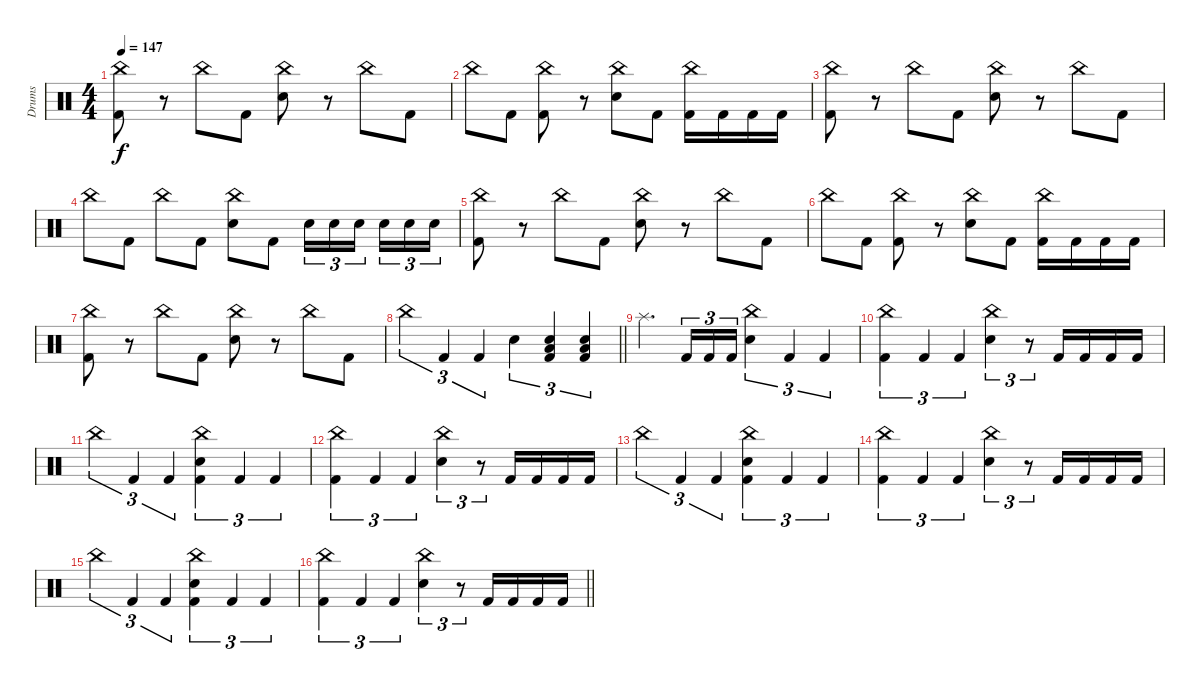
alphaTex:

\track ("Drums" "Drums") {instrument percussion}
\staff {score}
\articulation defaults
\ts (4 4)
\section ("" "")
\tempo 147
\clef neutral
\ks c
("China (hit)" "Kick (hit) 2").8{dy f} r.8 "China (hit)".8 "Kick (hit) 2".8 ("China (hit)" "Electric Snare (hit)").8 r.8 "China (hit)".8 "Kick (hit) 2".8 |
"China (hit)".8 "Kick (hit) 2".8 ("China (hit)" "Kick (hit) 2").8 r.8 ("China (hit)" "Electric Snare (hit)").8 "Kick (hit) 2".8 ("China (hit)" "Kick (hit) 2").16 "Kick (hit) 2".16 "Kick (hit) 2".16 "Kick (hit) 2".16 |
("China (hit)" "Kick (hit) 2").8 r.8 "China (hit)".8 "Kick (hit) 2".8 ("China (hit)" "Electric Snare (hit)").8 r.8 "China (hit)".8 "Kick (hit) 2".8 |
"China (hit)".8 "Kick (hit) 2".8 "China (hit)".8 "Kick (hit) 2".8 ("China (hit)" "Electric Snare (hit)").8 "Kick (hit) 2".8 "Electric Snare (hit)".16{tu (3 2)} "Electric Snare (hit)".16{tu (3 2)} "Electric Snare (hit)".16{tu (3 2) beam splitsecondary} "Electric Snare (hit)".16{tu (3 2)} "Electric Snare (hit)".16{tu (3 2)} "Electric Snare (hit)".16{tu (3 2)} |
("China (hit)" "Kick (hit) 2").8 r.8 "China (hit)".8 "Kick (hit) 2".8 ("China (hit)" "Electric Snare (hit)").8 r.8 "China (hit)".8 "Kick (hit) 2".8 |
"China (hit)".8 "Kick (hit) 2".8 ("China (hit)" "Kick (hit) 2").8 r.8 ("China (hit)" "Electric Snare (hit)").8 "Kick (hit) 2".8 ("China (hit)" "Kick (hit) 2").16 "Kick (hit) 2".16 "Kick (hit) 2".16 "Kick (hit) 2".16 |
("China (hit)" "Kick (hit) 2").8 r.8 "China (hit)".8 "Kick (hit) 2".8 ("China (hit)" "Electric Snare (hit)").8 r.8 "China (hit)".8 "Kick (hit) 2".8 |
\barLineRight lightlight "China (hit)".4{tu (3 2)} "Kick (hit) 2".4{tu (3 2)} "Kick (hit) 2".4{tu (3 2)} "Electric Snare (hit)".4{tu (3 2)}
("Electric Snare (hit)" "Low Floor Tom (hit)" "Kick (hit) 2").4{tu (3 2)} ("Electric Snare (hit)" "Low Floor Tom (hit)" "Kick (hit) 2").4{tu (3 2)} |
\section ("" "")
"Splash (hit)".4{d} "Kick (hit) 2".16{tu (3 2)} "Kick (hit) 2".16{tu (3 2)} "Kick (hit) 2".16{tu (3 2)} ("China (hit)" "Electric Snare (hit)").4{tu (3 2)} "Kick (hit) 2".4{tu (3 2)} "Kick (hit) 2".4{tu (3 2)} |
("China (hit)" "Kick (hit) 2").4{tu (3 2)} "Kick (hit) 2".4{tu (3 2)} "Kick (hit) 2".4{tu (3 2)} ("China (hit)" "Electric Snare (hit)").4{tu (3 2)} r.8{tu (3 2)} "Kick (hit) 2".16 "Kick (hit) 2".16 "Kick (hit) 2".16 "Kick (hit) 2".16 |
"China (hit)".4{tu (3 2)} "Kick (hit) 2".4{tu (3 2)} "Kick (hit) 2".4{tu (3 2)} ("China (hit)" "Electric Snare (hit)" "Kick (hit) 2").4{tu (3 2)} "Kick (hit) 2".4{tu (3 2)} "Kick (hit) 2".4{tu (3 2)} |
("China (hit)" "Kick (hit) 2").4{tu (3 2)} "Kick (hit) 2".4{tu (3 2)} "Kick (hit) 2".4{tu (3 2)} ("China (hit)" "Electric Snare (hit)").4{tu (3 2)} r.8{tu (3 2)} "Kick (hit) 2".16 "Kick (hit) 2".16 "Kick (hit) 2".16 "Kick (hit) 2".16 |
"China (hit)".4{tu (3 2)} "Kick (hit) 2".4{tu (3 2)} "Kick (hit) 2".4{tu (3 2)} ("China (hit)" "Electric Snare (hit)" "Kick (hit) 2").4{tu (3 2)} "Kick (hit) 2".4{tu (3 2)} "Kick (hit) 2".4{tu (3 2)} |
("China (hit)" "Kick (hit) 2").4{tu (3 2)} "Kick (hit) 2".4{tu (3 2)} "Kick (hit) 2".4{tu (3 2)} ("China (hit)" "Electric Snare (hit)").4{tu (3 2)} r.8{tu (3 2)} "Kick (hit) 2".16 "Kick (hit) 2".16 "Kick (hit) 2".16 "Kick (hit) 2".16 |
"China (hit)".4{tu (3 2)} "Kick (hit) 2".4{tu (3 2)} "Kick (hit) 2".4{tu (3 2)} ("China (hit)" "Electric Snare (hit)" "Kick (hit) 2").4{tu (3 2)} "Kick (hit) 2".4{tu (3 2)} "Kick (hit) 2".4{tu (3 2)} |
\barLineRight lightlight
("China (hit)" "Kick (hit) 2").4{tu (3 2)} "Kick (hit) 2".4{tu (3 2)} "Kick (hit) 2".4{tu (3 2)} ("China (hit)" "Electric Snare (hit)").4{tu (3 2)} r.8{tu (3 2)} "Kick (hit) 2".16 "Kick (hit) 2".16 "Kick (hit) 2".16 "Kick (hit) 2".16
